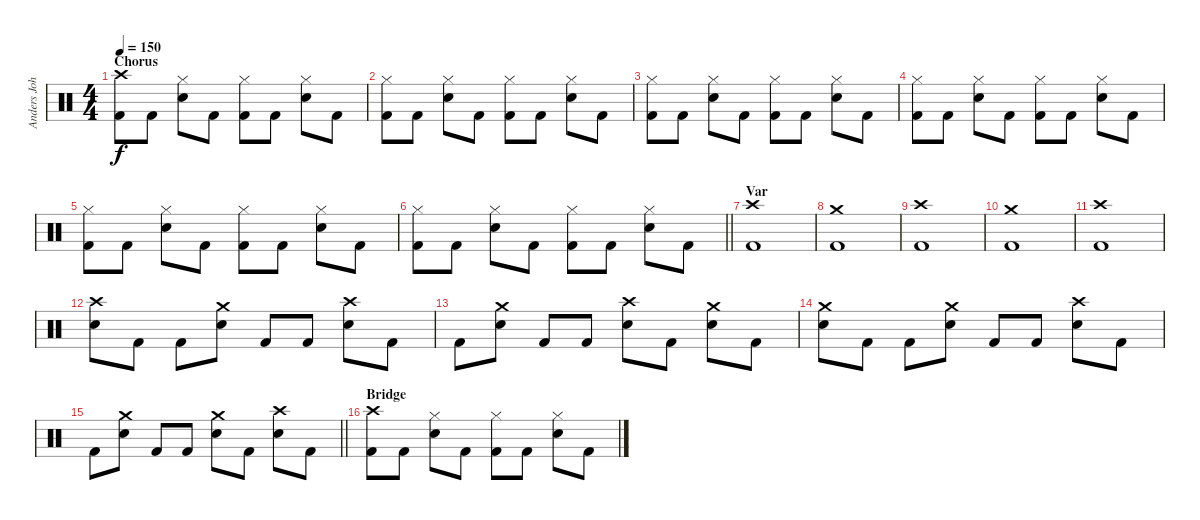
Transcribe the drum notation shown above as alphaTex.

\track ("Anders Johansson" "Anders Joh") {instrument percussion}
\staff {score}
\articulation defaults
\ts (4 4)
\section ("" "Chorus")
\tempo 150
\clef neutral
\ks c
("Crash high (hit)" "Kick (hit) 2").8{dy f} "Kick (hit) 2".8 ("Hi-Hat (closed)" "Snare (hit) 2").8 "Kick (hit) 2".8 ("Hi-Hat (closed)" "Kick (hit) 2").8 "Kick (hit) 2".8 ("Hi-Hat (closed)" "Snare (hit) 2").8 "Kick (hit) 2".8 |
("Hi-Hat (closed)" "Kick (hit) 2").8 "Kick (hit) 2".8 ("Hi-Hat (closed)" "Snare (hit) 2").8 "Kick (hit) 2".8 ("Hi-Hat (closed)" "Kick (hit) 2").8 "Kick (hit) 2".8 ("Hi-Hat (closed)" "Snare (hit) 2").8 "Kick (hit) 2".8 |
("Hi-Hat (closed)" "Kick (hit) 2").8 "Kick (hit) 2".8 ("Hi-Hat (closed)" "Snare (hit) 2").8 "Kick (hit) 2".8 ("Hi-Hat (closed)" "Kick (hit) 2").8 "Kick (hit) 2".8 ("Hi-Hat (closed)" "Snare (hit) 2").8 "Kick (hit) 2".8 |
("Hi-Hat (closed)" "Kick (hit) 2").8 "Kick (hit) 2".8 ("Hi-Hat (closed)" "Snare (hit) 2").8 "Kick (hit) 2".8 ("Hi-Hat (closed)" "Kick (hit) 2").8 "Kick (hit) 2".8 ("Hi-Hat (closed)" "Snare (hit) 2").8 "Kick (hit) 2".8 |
("Hi-Hat (closed)" "Kick (hit) 2").8 "Kick (hit) 2".8 ("Hi-Hat (closed)" "Snare (hit) 2").8 "Kick (hit) 2".8 ("Hi-Hat (closed)" "Kick (hit) 2").8 "Kick (hit) 2".8 ("Hi-Hat (closed)" "Snare (hit) 2").8 "Kick (hit) 2".8 |
\barLineRight lightlight
("Hi-Hat (closed)" "Kick (hit) 2").8 "Kick (hit) 2".8 ("Hi-Hat (closed)" "Snare (hit) 2").8 "Kick (hit) 2".8 ("Hi-Hat (closed)" "Kick (hit) 2").8 "Kick (hit) 2".8 ("Hi-Hat (closed)" "Snare (hit) 2").8 "Kick (hit) 2".8 |
\section ("" "Var")
("Crash high (hit)" "Kick (hit) 2").1 |
("Crash medium (hit)" "Kick (hit) 2").1 |
("Crash high (hit)" "Kick (hit) 2").1 |
("Crash medium (hit)" "Kick (hit) 2").1 |
("Crash high (hit)" "Kick (hit) 2").1 |
("Crash high (hit)" "Snare (hit) 2").8 "Kick (hit) 2".8 "Kick (hit) 2".8 ("Crash medium (hit)" "Snare (hit) 2").8 "Kick (hit) 2".8 "Kick (hit) 2".8 ("Crash high (hit)" "Snare (hit) 2").8 "Kick (hit) 2".8 |
"Kick (hit) 2".8 ("Crash medium (hit)" "Snare (hit) 2").8 "Kick (hit) 2".8 "Kick (hit) 2".8 ("Crash high (hit)" "Snare (hit) 2").8 "Kick (hit) 2".8 ("Crash medium (hit)" "Snare (hit) 2").8 "Kick (hit) 2".8 |
("Crash medium (hit)" "Snare (hit) 2").8 "Kick (hit) 2".8 "Kick (hit) 2".8 ("Crash medium (hit)" "Snare (hit) 2").8 "Kick (hit) 2".8 "Kick (hit) 2".8 ("Crash high (hit)" "Snare (hit) 2").8 "Kick (hit) 2".8 |
\barLineRight lightlight "Kick (hit) 2".8
("Crash medium (hit)" "Snare (hit) 2").8 "Kick (hit) 2".8 "Kick (hit) 2".8 ("Crash medium (hit)" "Snare (hit) 2").8 "Kick (hit) 2".8 ("Crash high (hit)" "Snare (hit) 2").8 "Kick (hit) 2".8 |
\section ("" "Bridge")
("Crash high (hit)" "Kick (hit) 2").8 "Kick (hit) 2".8 ("Hi-Hat (closed)" "Snare (hit) 2").8 "Kick (hit) 2".8 ("Hi-Hat (closed)" "Kick (hit) 2").8 "Kick (hit) 2".8 ("Hi-Hat (closed)" "Snare (hit) 2").8 "Kick (hit) 2".8
